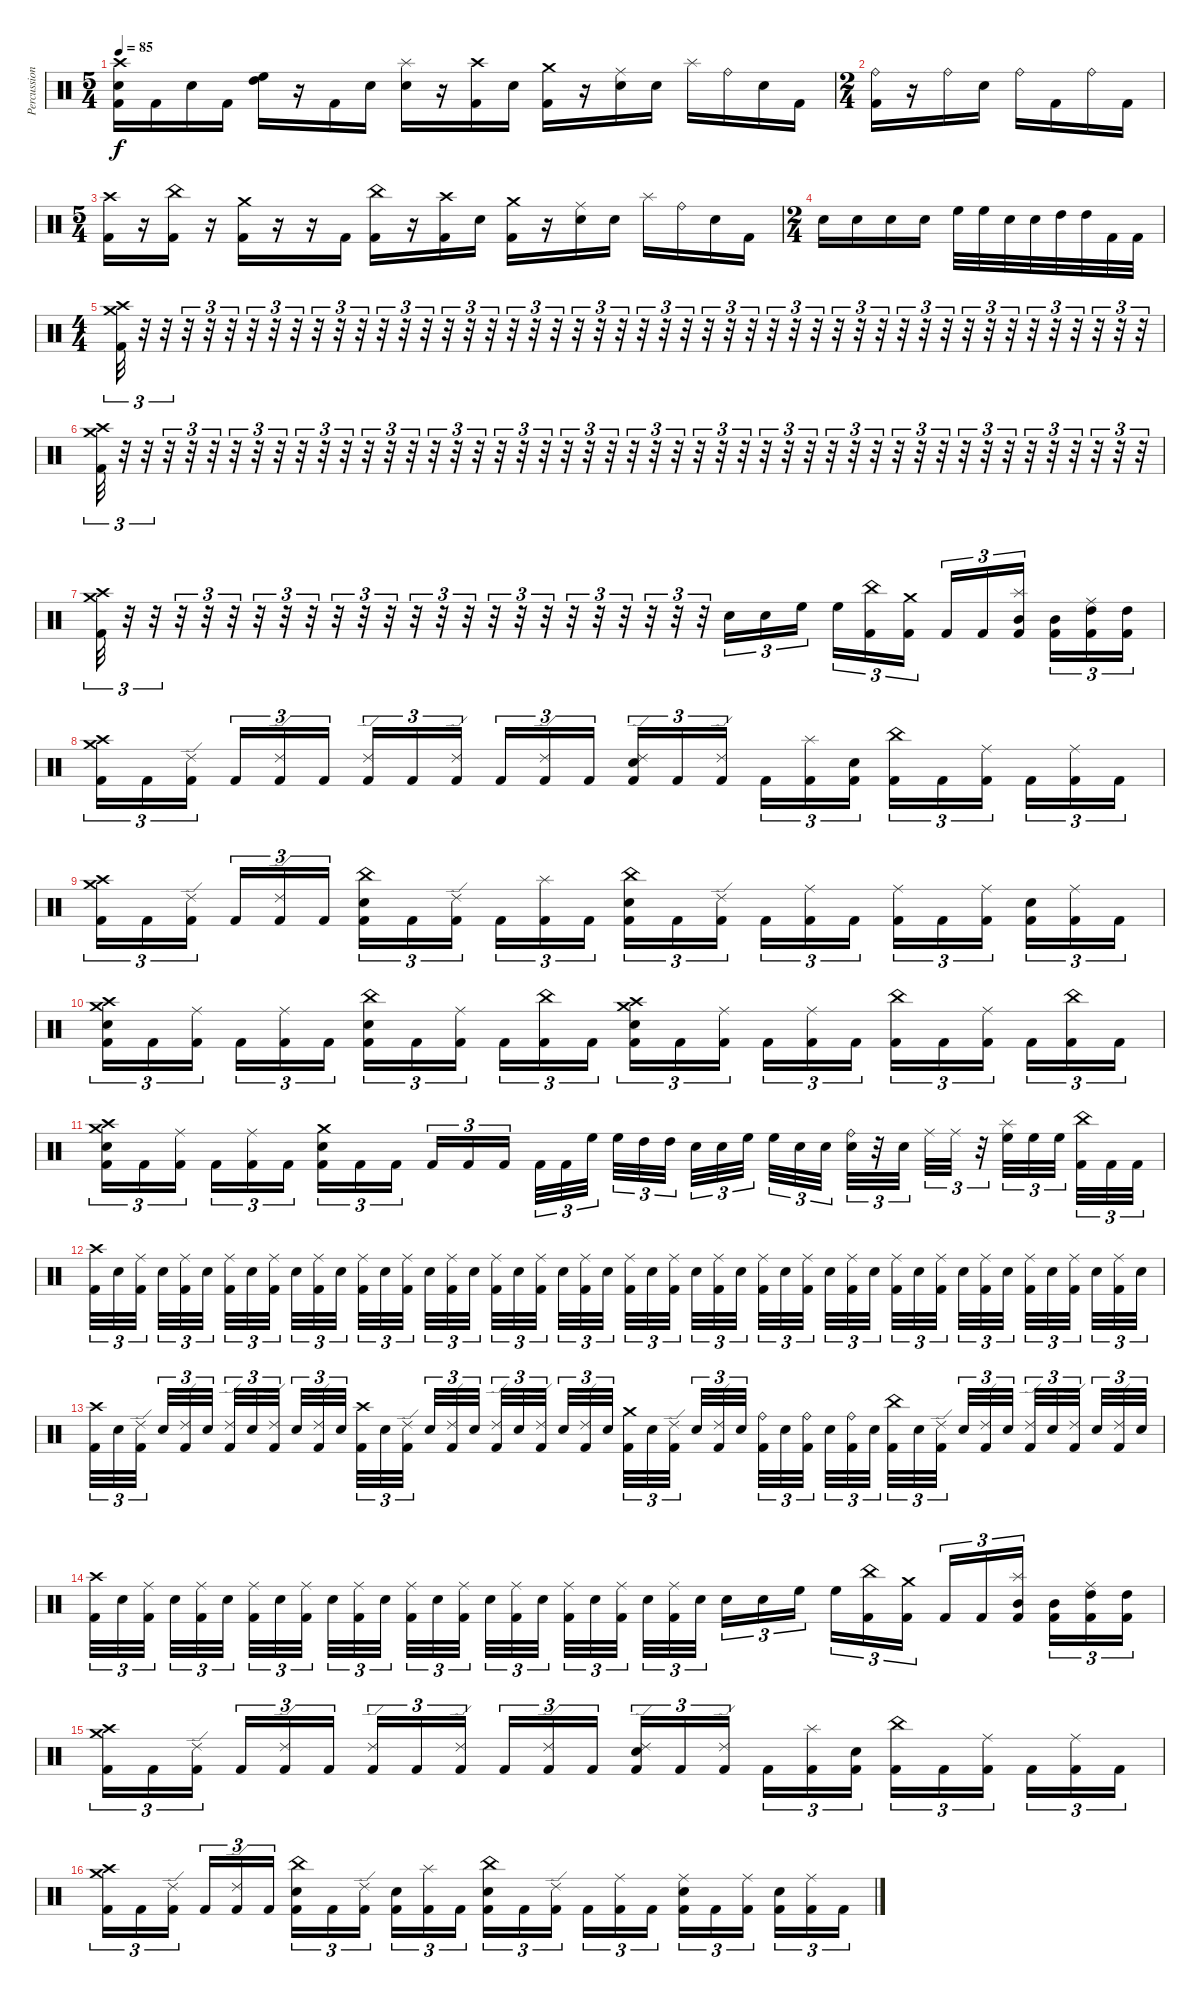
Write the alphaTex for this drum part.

\track ("Percussion" "Percussion") {instrument percussion}
\staff {score}
\articulation defaults
\ts (5 4)
\tempo 85
\clef neutral
\ks c
("Crash high (hit)" "Electric Snare (hit)" "Kick (hit) 2").16{dy f} "Kick (hit) 2".16 "Electric Snare (hit)".16 "Kick (hit) 2".16 ("High Tom (hit)" "High Floor Tom (hit)").16 r.16 "Kick (hit) 2".16 "Electric Snare (hit)".16 ("Splash (hit)" "Electric Snare (hit)").16 r.16 ("Crash high (hit)" "Kick (hit) 2").16 "Electric Snare (hit)".16 ("Crash medium (hit)" "Kick (hit) 2").16 r.16 ("Ride (middle)" "Electric Snare (hit)").16 "Electric Snare (hit)".16 "Splash (hit)".16 "Ride (bell)".16 "Electric Snare (hit)".16 "Kick (hit) 2".16 |
\ts (2 4)
("Ride (bell)" "Kick (hit) 2").16 r.16 "Ride (bell)".16 "Electric Snare (hit)".16 "Ride (bell)".16 "Kick (hit) 2".16 "Ride (bell)".16 "Kick (hit) 2".16 |
\ts (5 4)
("Crash high (hit)" "Kick (hit) 2").16 r.16 ("China (hit)" "Kick (hit) 2").16 r.16 ("Crash medium (hit)" "Kick (hit) 2").16 r.16 r.16 "Kick (hit) 2".16 ("China (hit)" "Kick (hit) 2").16 r.16 ("Crash high (hit)" "Kick (hit) 2").16 "Electric Snare (hit)".16 ("Crash medium (hit)" "Kick (hit) 2").16 r.16 ("Ride (middle)" "Electric Snare (hit)").16 "Electric Snare (hit)".16 "Splash (hit)".16 "Ride (bell)".16 "Electric Snare (hit)".16 "Kick (hit) 2".16 |
\ts (2 4)
"Electric Snare (hit)".16 "Electric Snare (hit)".16 "Electric Snare (hit)".16 "Electric Snare (hit)".16 "High Floor Tom (hit)".32 "High Floor Tom (hit)".32 "Electric Snare (hit)".32 "Electric Snare (hit)".32 "High Tom (hit)".32 "High Tom (hit)".32 "Kick (hit) 2".32 "Kick (hit) 2".32 |
\ts (4 4)
("Crash high (hit)" "Crash medium (hit)" "Kick (hit) 2").32{tu (3 2)} r.32{tu (3 2)} r.32{tu (3 2)} r.32{tu (3 2)} r.32{tu (3 2)} r.32{tu (3 2)} r.32{tu (3 2)} r.32{tu (3 2)} r.32{tu (3 2)} r.32{tu (3 2)} r.32{tu (3 2)} r.32{tu (3 2)} r.32{tu (3 2)} r.32{tu (3 2)} r.32{tu (3 2)} r.32{tu (3 2)} r.32{tu (3 2)} r.32{tu (3 2)} r.32{tu (3 2)} r.32{tu (3 2)} r.32{tu (3 2)} r.32{tu (3 2)} r.32{tu (3 2)} r.32{tu (3 2)} r.32{tu (3 2)} r.32{tu (3 2)} r.32{tu (3 2)} r.32{tu (3 2)} r.32{tu (3 2)} r.32{tu (3 2)} r.32{tu (3 2)} r.32{tu (3 2)} r.32{tu (3 2)} r.32{tu (3 2)} r.32{tu (3 2)} r.32{tu (3 2)} r.32{tu (3 2)} r.32{tu (3 2)} r.32{tu (3 2)} r.32{tu (3 2)} r.32{tu (3 2)} r.32{tu (3 2)} r.32{tu (3 2)} r.32{tu (3 2)} r.32{tu (3 2)} r.32{tu (3 2)} r.32{tu (3 2)} r.32{tu (3 2)} |
("Crash high (hit)" "Crash medium (hit)" "Kick (hit) 2").32{tu (3 2)} r.32{tu (3 2)} r.32{tu (3 2)} r.32{tu (3 2)} r.32{tu (3 2)} r.32{tu (3 2)} r.32{tu (3 2)} r.32{tu (3 2)} r.32{tu (3 2)} r.32{tu (3 2)} r.32{tu (3 2)} r.32{tu (3 2)} r.32{tu (3 2)} r.32{tu (3 2)} r.32{tu (3 2)} r.32{tu (3 2)} r.32{tu (3 2)} r.32{tu (3 2)} r.32{tu (3 2)} r.32{tu (3 2)} r.32{tu (3 2)} r.32{tu (3 2)} r.32{tu (3 2)} r.32{tu (3 2)} r.32{tu (3 2)} r.32{tu (3 2)} r.32{tu (3 2)} r.32{tu (3 2)} r.32{tu (3 2)} r.32{tu (3 2)} r.32{tu (3 2)} r.32{tu (3 2)} r.32{tu (3 2)} r.32{tu (3 2)} r.32{tu (3 2)} r.32{tu (3 2)} r.32{tu (3 2)} r.32{tu (3 2)} r.32{tu (3 2)} r.32{tu (3 2)} r.32{tu (3 2)} r.32{tu (3 2)} r.32{tu (3 2)} r.32{tu (3 2)} r.32{tu (3 2)} r.32{tu (3 2)} r.32{tu (3 2)} r.32{tu (3 2)} |
("Crash high (hit)" "Crash medium (hit)" "Kick (hit) 2").32{tu (3 2)} r.32{tu (3 2)} r.32{tu (3 2)} r.32{tu (3 2)} r.32{tu (3 2)} r.32{tu (3 2)} r.32{tu (3 2)} r.32{tu (3 2)} r.32{tu (3 2)} r.32{tu (3 2)} r.32{tu (3 2)} r.32{tu (3 2)} r.32{tu (3 2)} r.32{tu (3 2)} r.32{tu (3 2)} r.32{tu (3 2)} r.32{tu (3 2)} r.32{tu (3 2)} r.32{tu (3 2)} r.32{tu (3 2)} r.32{tu (3 2)} r.32{tu (3 2)} r.32{tu (3 2)} r.32{tu (3 2)} "Electric Snare (hit)".16{tu (3 2)} "Electric Snare (hit)".16{tu (3 2)} "High Floor Tom (hit)".16{tu (3 2) beam splitsecondary} "High Floor Tom (hit)".16{tu (3 2)} ("China (hit)" "Kick (hit) 2").16{tu (3 2)} ("Crash medium (hit)" "Kick (hit) 2").16{tu (3 2)} "Kick (hit) 2".16{tu (3 2)} "Kick (hit) 2".16{tu (3 2)} ("Splash (hit)" "Mid Tom (hit)" "Kick (hit) 2").16{tu (3 2) beam splitsecondary} ("Mid Tom (hit)" "Kick (hit) 2").16{tu (3 2)} ("Ride (middle)" "High Tom (hit)" "Kick (hit) 2").16{tu (3 2)} ("High Tom (hit)" "Kick (hit) 2").16{tu (3 2)} |
("Crash medium (hit)" "Crash high (hit)" "Kick (hit) 2").16{tu (3 2)} "Kick (hit) 2".16{tu (3 2)} ("Ride (edge) 2" "Kick (hit) 2").16{tu (3 2) beam splitsecondary} "Kick (hit) 2".16{tu (3 2)} ("Ride (edge) 2" "Kick (hit) 2").16{tu (3 2)} "Kick (hit) 2".16{tu (3 2)} ("Ride (edge) 2" "Kick (hit) 2").16{tu (3 2)} "Kick (hit) 2".16{tu (3 2)} ("Ride (edge) 2" "Kick (hit) 2").16{tu (3 2) beam splitsecondary} "Kick (hit) 2".16{tu (3 2)} ("Ride (edge) 2" "Kick (hit) 2").16{tu (3 2)} "Kick (hit) 2".16{tu (3 2)} ("Ride (edge) 2" "Electric Snare (hit)" "Kick (hit) 2").16{tu (3 2)} "Kick (hit) 2".16{tu (3 2)} ("Ride (edge) 2" "Kick (hit) 2").16{tu (3 2) beam splitsecondary} "Kick (hit) 2".16{tu (3 2)} ("Splash (hit)" "Kick (hit) 2").16{tu (3 2)} ("Electric Snare (hit)" "Kick (hit) 2").16{tu (3 2)} ("China (hit)" "Kick (hit) 2").16{tu (3 2)} "Kick (hit) 2".16{tu (3 2)} ("Ride (middle)" "Kick (hit) 2").16{tu (3 2) beam splitsecondary} "Kick (hit) 2".16{tu (3 2)} ("Ride (middle)" "Kick (hit) 2").16{tu (3 2)} "Kick (hit) 2".16{tu (3 2)} |
("Crash medium (hit)" "Crash high (hit)" "Kick (hit) 2").16{tu (3 2)} "Kick (hit) 2".16{tu (3 2)} ("Ride (edge) 2" "Kick (hit) 2").16{tu (3 2) beam splitsecondary} "Kick (hit) 2".16{tu (3 2)} ("Ride (edge) 2" "Kick (hit) 2").16{tu (3 2)} "Kick (hit) 2".16{tu (3 2)} ("China (hit)" "Electric Snare (hit)" "Kick (hit) 2").16{tu (3 2)} "Kick (hit) 2".16{tu (3 2)} ("Ride (edge) 2" "Kick (hit) 2").16{tu (3 2) beam splitsecondary} "Kick (hit) 2".16{tu (3 2)} ("Splash (hit)" "Kick (hit) 2").16{tu (3 2)} "Kick (hit) 2".16{tu (3 2)} ("China (hit)" "Electric Snare (hit)" "Kick (hit) 2").16{tu (3 2)} "Kick (hit) 2".16{tu (3 2)} ("Ride (edge) 2" "Kick (hit) 2").16{tu (3 2) beam splitsecondary} "Kick (hit) 2".16{tu (3 2)} ("Ride (middle)" "Kick (hit) 2").16{tu (3 2)} "Kick (hit) 2".16{tu (3 2)} ("Ride (middle)" "Kick (hit) 2").16{tu (3 2)} "Kick (hit) 2".16{tu (3 2)} ("Ride (middle)" "Kick (hit) 2").16{tu (3 2) beam splitsecondary} ("Electric Snare (hit)" "Kick (hit) 2").16{tu (3 2)} ("Ride (middle)" "Kick (hit) 2").16{tu (3 2)} "Kick (hit) 2".16{tu (3 2)} |
("Crash medium (hit)" "Crash high (hit)" "Electric Snare (hit)" "Kick (hit) 2").16{tu (3 2)} "Kick (hit) 2".16{tu (3 2)} ("Ride (middle)" "Kick (hit) 2").16{tu (3 2) beam splitsecondary} "Kick (hit) 2".16{tu (3 2)} ("Ride (middle)" "Kick (hit) 2").16{tu (3 2)} "Kick (hit) 2".16{tu (3 2)} ("China (hit)" "Electric Snare (hit)" "Kick (hit) 2").16{tu (3 2)} "Kick (hit) 2".16{tu (3 2)} ("Ride (middle)" "Kick (hit) 2").16{tu (3 2) beam splitsecondary} "Kick (hit) 2".16{tu (3 2)} ("China (hit)" "Kick (hit) 2").16{tu (3 2)} "Kick (hit) 2".16{tu (3 2)} ("Crash medium (hit)" "Crash high (hit)" "Electric Snare (hit)" "Kick (hit) 2").16{tu (3 2)} "Kick (hit) 2".16{tu (3 2)} ("Ride (middle)" "Kick (hit) 2").16{tu (3 2) beam splitsecondary} "Kick (hit) 2".16{tu (3 2)} ("Ride (middle)" "Kick (hit) 2").16{tu (3 2)} "Kick (hit) 2".16{tu (3 2)} ("China (hit)" "Kick (hit) 2").16{tu (3 2)} "Kick (hit) 2".16{tu (3 2)} ("Ride (middle)" "Kick (hit) 2").16{tu (3 2) beam splitsecondary} "Kick (hit) 2".16{tu (3 2)} ("China (hit)" "Kick (hit) 2").16{tu (3 2)} "Kick (hit) 2".16{tu (3 2)} |
("Crash medium (hit)" "Crash high (hit)" "Electric Snare (hit)" "Kick (hit) 2").16{tu (3 2)} "Kick (hit) 2".16{tu (3 2)} ("Ride (middle)" "Kick (hit) 2").16{tu (3 2) beam splitsecondary} "Kick (hit) 2".16{tu (3 2)} ("Ride (middle)" "Kick (hit) 2").16{tu (3 2)} "Kick (hit) 2".16{tu (3 2)} ("Crash medium (hit)" "Electric Snare (hit)" "Kick (hit) 2").16{tu (3 2)} "Kick (hit) 2".16{tu (3 2)} "Kick (hit) 2".16{tu (3 2) beam splitsecondary} "Kick (hit) 2".16{tu (3 2)} "Kick (hit) 2".16{tu (3 2)} "Kick (hit) 2".16{tu (3 2)} "Kick (hit) 2".32{tu (3 2)} "Kick (hit) 2".32{tu (3 2)} "High Floor Tom (hit)".32{tu (3 2) beam splitsecondary} "High Floor Tom (hit)".32{tu (3 2)} "High Tom (hit)".32{tu (3 2)} "High Tom (hit)".32{tu (3 2) beam splitsecondary} "Electric Snare (hit)".32{tu (3 2)} "Electric Snare (hit)".32{tu (3 2)} "High Floor Tom (hit)".32{tu (3 2) beam splitsecondary} "High Floor Tom (hit)".32{tu (3 2)} "Electric Snare (hit)".32{tu (3 2)} "Electric Snare (hit)".32{tu (3 2)} ("Ride (bell)" "Electric Snare (hit)").32{tu (3 2)} r.32{tu (3 2)} "Electric Snare (hit)".32{tu (3 2) beam splitsecondary} "Ride (middle)".32{tu (3 2)} "Ride (middle)".32{tu (3 2)} r.32{tu (3 2)} ("Splash (hit)" "High Floor Tom (hit)").32{tu (3 2)} "High Floor Tom (hit)".32{tu (3 2)} "High Floor Tom (hit)".32{tu (3 2) beam splitsecondary} ("China (hit)" "Kick (hit) 2").32{tu (3 2)} "Kick (hit) 2".32{tu (3 2)} "Kick (hit) 2".32{tu (3 2)} |
("Crash high (hit)" "Kick (hit) 2").32{tu (3 2)} "Electric Snare (hit)".32{tu (3 2)} ("Ride (middle)" "Kick (hit) 2").32{tu (3 2) beam splitsecondary} "Electric Snare (hit)".32{tu (3 2)} ("Ride (middle)" "Kick (hit) 2").32{tu (3 2)} "Electric Snare (hit)".32{tu (3 2) beam splitsecondary} ("Ride (middle)" "Kick (hit) 2").32{tu (3 2)} "Electric Snare (hit)".32{tu (3 2)} ("Ride (middle)" "Kick (hit) 2").32{tu (3 2) beam splitsecondary} "Electric Snare (hit)".32{tu (3 2)} ("Ride (middle)" "Kick (hit) 2").32{tu (3 2)} "Electric Snare (hit)".32{tu (3 2)} ("Ride (middle)" "Kick (hit) 2").32{tu (3 2)} "Electric Snare (hit)".32{tu (3 2)} ("Ride (middle)" "Kick (hit) 2").32{tu (3 2) beam splitsecondary} "Electric Snare (hit)".32{tu (3 2)} ("Ride (middle)" "Kick (hit) 2").32{tu (3 2)} "Electric Snare (hit)".32{tu (3 2) beam splitsecondary} ("Ride (middle)" "Kick (hit) 2").32{tu (3 2)} "Electric Snare (hit)".32{tu (3 2)} ("Ride (middle)" "Kick (hit) 2").32{tu (3 2) beam splitsecondary} "Electric Snare (hit)".32{tu (3 2)} ("Ride (middle)" "Kick (hit) 2").32{tu (3 2)} "Electric Snare (hit)".32{tu (3 2)} ("Ride (middle)" "Kick (hit) 2").32{tu (3 2)} "Electric Snare (hit)".32{tu (3 2)} ("Ride (middle)" "Kick (hit) 2").32{tu (3 2) beam splitsecondary} "Electric Snare (hit)".32{tu (3 2)} ("Ride (middle)" "Kick (hit) 2").32{tu (3 2)} "Electric Snare (hit)".32{tu (3 2) beam splitsecondary} ("Ride (middle)" "Kick (hit) 2").32{tu (3 2)} "Electric Snare (hit)".32{tu (3 2)} ("Ride (middle)" "Kick (hit) 2").32{tu (3 2) beam splitsecondary} "Electric Snare (hit)".32{tu (3 2)} ("Ride (middle)" "Kick (hit) 2").32{tu (3 2)} "Electric Snare (hit)".32{tu (3 2)} ("Ride (middle)" "Kick (hit) 2").32{tu (3 2)} "Electric Snare (hit)".32{tu (3 2)} ("Ride (middle)" "Kick (hit) 2").32{tu (3 2) beam splitsecondary} "Electric Snare (hit)".32{tu (3 2)} ("Ride (middle)" "Kick (hit) 2").32{tu (3 2)} "Electric Snare (hit)".32{tu (3 2) beam splitsecondary} ("Ride (middle)" "Kick (hit) 2").32{tu (3 2)} "Electric Snare (hit)".32{tu (3 2)} ("Ride (middle)" "Kick (hit) 2").32{tu (3 2) beam splitsecondary} "Electric Snare (hit)".32{tu (3 2)} ("Ride (middle)" "Kick (hit) 2").32{tu (3 2)} "Electric Snare (hit)".32{tu (3 2)} |
("Crash high (hit)" "Kick (hit) 2").32{tu (3 2)} "Electric Snare (hit)".32{tu (3 2)} ("Ride (edge) 2" "Kick (hit) 2").32{tu (3 2) beam splitsecondary} "Electric Snare (hit)".32{tu (3 2)} ("Ride (edge) 2" "Kick (hit) 2").32{tu (3 2)} "Electric Snare (hit)".32{tu (3 2) beam splitsecondary} ("Ride (edge) 2" "Kick (hit) 2").32{tu (3 2)} "Electric Snare (hit)".32{tu (3 2)} ("Ride (edge) 2" "Kick (hit) 2").32{tu (3 2) beam splitsecondary} "Electric Snare (hit)".32{tu (3 2)} ("Ride (edge) 2" "Kick (hit) 2").32{tu (3 2)} "Electric Snare (hit)".32{tu (3 2)} ("Crash high (hit)" "Kick (hit) 2").32{tu (3 2)} "Electric Snare (hit)".32{tu (3 2)} ("Ride (edge) 2" "Kick (hit) 2").32{tu (3 2) beam splitsecondary} "Electric Snare (hit)".32{tu (3 2)} ("Ride (edge) 2" "Kick (hit) 2").32{tu (3 2)} "Electric Snare (hit)".32{tu (3 2) beam splitsecondary} ("Ride (edge) 2" "Kick (hit) 2").32{tu (3 2)} "Electric Snare (hit)".32{tu (3 2)} ("Ride (edge) 2" "Kick (hit) 2").32{tu (3 2) beam splitsecondary} "Electric Snare (hit)".32{tu (3 2)} ("Ride (edge) 2" "Kick (hit) 2").32{tu (3 2)} "Electric Snare (hit)".32{tu (3 2)} ("Crash medium (hit)" "Kick (hit) 2").32{tu (3 2)} "Electric Snare (hit)".32{tu (3 2)} ("Ride (edge) 2" "Kick (hit) 2").32{tu (3 2) beam splitsecondary} "Electric Snare (hit)".32{tu (3 2)} ("Ride (edge) 2" "Kick (hit) 2").32{tu (3 2)} "Electric Snare (hit)".32{tu (3 2) beam splitsecondary} ("Ride (bell)" "Kick (hit) 2").32{tu (3 2)} "Electric Snare (hit)".32{tu (3 2)} ("Ride (bell)" "Kick (hit) 2").32{tu (3 2) beam splitsecondary} "Electric Snare (hit)".32{tu (3 2)} ("Ride (bell)" "Kick (hit) 2").32{tu (3 2)} "Electric Snare (hit)".32{tu (3 2)} ("China (hit)" "Kick (hit) 2").32{tu (3 2)} "Electric Snare (hit)".32{tu (3 2)} ("Ride (edge) 2" "Kick (hit) 2").32{tu (3 2) beam splitsecondary} "Electric Snare (hit)".32{tu (3 2)} ("Ride (edge) 2" "Kick (hit) 2").32{tu (3 2)} "Electric Snare (hit)".32{tu (3 2) beam splitsecondary} ("Ride (edge) 2" "Kick (hit) 2").32{tu (3 2)} "Electric Snare (hit)".32{tu (3 2)} ("Ride (edge) 2" "Kick (hit) 2").32{tu (3 2) beam splitsecondary} "Electric Snare (hit)".32{tu (3 2)} ("Ride (edge) 2" "Kick (hit) 2").32{tu (3 2)} "Electric Snare (hit)".32{tu (3 2)} |
("Crash high (hit)" "Kick (hit) 2").32{tu (3 2)} "Electric Snare (hit)".32{tu (3 2)} ("Ride (middle)" "Kick (hit) 2").32{tu (3 2) beam splitsecondary} "Electric Snare (hit)".32{tu (3 2)} ("Ride (middle)" "Kick (hit) 2").32{tu (3 2)} "Electric Snare (hit)".32{tu (3 2) beam splitsecondary} ("Ride (middle)" "Kick (hit) 2").32{tu (3 2)} "Electric Snare (hit)".32{tu (3 2)} ("Ride (middle)" "Kick (hit) 2").32{tu (3 2) beam splitsecondary} "Electric Snare (hit)".32{tu (3 2)} ("Ride (middle)" "Kick (hit) 2").32{tu (3 2)} "Electric Snare (hit)".32{tu (3 2)} ("Ride (middle)" "Kick (hit) 2").32{tu (3 2)} "Electric Snare (hit)".32{tu (3 2)} ("Ride (middle)" "Kick (hit) 2").32{tu (3 2) beam splitsecondary} "Electric Snare (hit)".32{tu (3 2)} ("Ride (middle)" "Kick (hit) 2").32{tu (3 2)} "Electric Snare (hit)".32{tu (3 2) beam splitsecondary} ("Ride (middle)" "Kick (hit) 2").32{tu (3 2)} "Electric Snare (hit)".32{tu (3 2)} ("Ride (middle)" "Kick (hit) 2").32{tu (3 2) beam splitsecondary} "Electric Snare (hit)".32{tu (3 2)} ("Ride (middle)" "Kick (hit) 2").32{tu (3 2)} "Electric Snare (hit)".32{tu (3 2)} "Electric Snare (hit)".16{tu (3 2)} "Electric Snare (hit)".16{tu (3 2)} "High Floor Tom (hit)".16{tu (3 2) beam splitsecondary} "High Floor Tom (hit)".16{tu (3 2)} ("China (hit)" "Kick (hit) 2").16{tu (3 2)} ("Crash medium (hit)" "Kick (hit) 2").16{tu (3 2)} "Kick (hit) 2".16{tu (3 2)} "Kick (hit) 2".16{tu (3 2)} ("Splash (hit)" "Mid Tom (hit)" "Kick (hit) 2").16{tu (3 2) beam splitsecondary} ("Mid Tom (hit)" "Kick (hit) 2").16{tu (3 2)} ("Ride (middle)" "High Tom (hit)" "Kick (hit) 2").16{tu (3 2)} ("High Tom (hit)" "Kick (hit) 2").16{tu (3 2)} |
("Crash medium (hit)" "Crash high (hit)" "Kick (hit) 2").16{tu (3 2)} "Kick (hit) 2".16{tu (3 2)} ("Ride (edge) 2" "Kick (hit) 2").16{tu (3 2) beam splitsecondary} "Kick (hit) 2".16{tu (3 2)} ("Ride (edge) 2" "Kick (hit) 2").16{tu (3 2)} "Kick (hit) 2".16{tu (3 2)} ("Ride (edge) 2" "Kick (hit) 2").16{tu (3 2)} "Kick (hit) 2".16{tu (3 2)} ("Ride (edge) 2" "Kick (hit) 2").16{tu (3 2) beam splitsecondary} "Kick (hit) 2".16{tu (3 2)} ("Ride (edge) 2" "Kick (hit) 2").16{tu (3 2)} "Kick (hit) 2".16{tu (3 2)} ("Ride (edge) 2" "Electric Snare (hit)" "Kick (hit) 2").16{tu (3 2)} "Kick (hit) 2".16{tu (3 2)} ("Ride (edge) 2" "Kick (hit) 2").16{tu (3 2) beam splitsecondary} "Kick (hit) 2".16{tu (3 2)} ("Splash (hit)" "Kick (hit) 2").16{tu (3 2)} ("Electric Snare (hit)" "Kick (hit) 2").16{tu (3 2)} ("China (hit)" "Kick (hit) 2").16{tu (3 2)} "Kick (hit) 2".16{tu (3 2)} ("Ride (middle)" "Kick (hit) 2").16{tu (3 2) beam splitsecondary} "Kick (hit) 2".16{tu (3 2)} ("Ride (middle)" "Kick (hit) 2").16{tu (3 2)} "Kick (hit) 2".16{tu (3 2)} |
("Crash medium (hit)" "Crash high (hit)" "Kick (hit) 2").16{tu (3 2)} "Kick (hit) 2".16{tu (3 2)} ("Ride (edge) 2" "Kick (hit) 2").16{tu (3 2) beam splitsecondary} "Kick (hit) 2".16{tu (3 2)} ("Ride (edge) 2" "Kick (hit) 2").16{tu (3 2)} "Kick (hit) 2".16{tu (3 2)} ("China (hit)" "Electric Snare (hit)" "Kick (hit) 2").16{tu (3 2)} "Kick (hit) 2".16{tu (3 2)} ("Ride (edge) 2" "Kick (hit) 2").16{tu (3 2) beam splitsecondary} ("Electric Snare (hit)" "Kick (hit) 2").16{tu (3 2)} ("Splash (hit)" "Kick (hit) 2").16{tu (3 2)} "Kick (hit) 2".16{tu (3 2)} ("China (hit)" "Electric Snare (hit)" "Kick (hit) 2").16{tu (3 2)} "Kick (hit) 2".16{tu (3 2)} ("Ride (edge) 2" "Kick (hit) 2").16{tu (3 2) beam splitsecondary} "Kick (hit) 2".16{tu (3 2)} ("Ride (middle)" "Kick (hit) 2").16{tu (3 2)} "Kick (hit) 2".16{tu (3 2)} ("Ride (middle)" "Electric Snare (hit)" "Kick (hit) 2").16{tu (3 2)} "Kick (hit) 2".16{tu (3 2)} ("Ride (middle)" "Kick (hit) 2").16{tu (3 2) beam splitsecondary} ("Electric Snare (hit)" "Kick (hit) 2").16{tu (3 2)} ("Ride (middle)" "Kick (hit) 2").16{tu (3 2)} "Kick (hit) 2".16{tu (3 2)}
